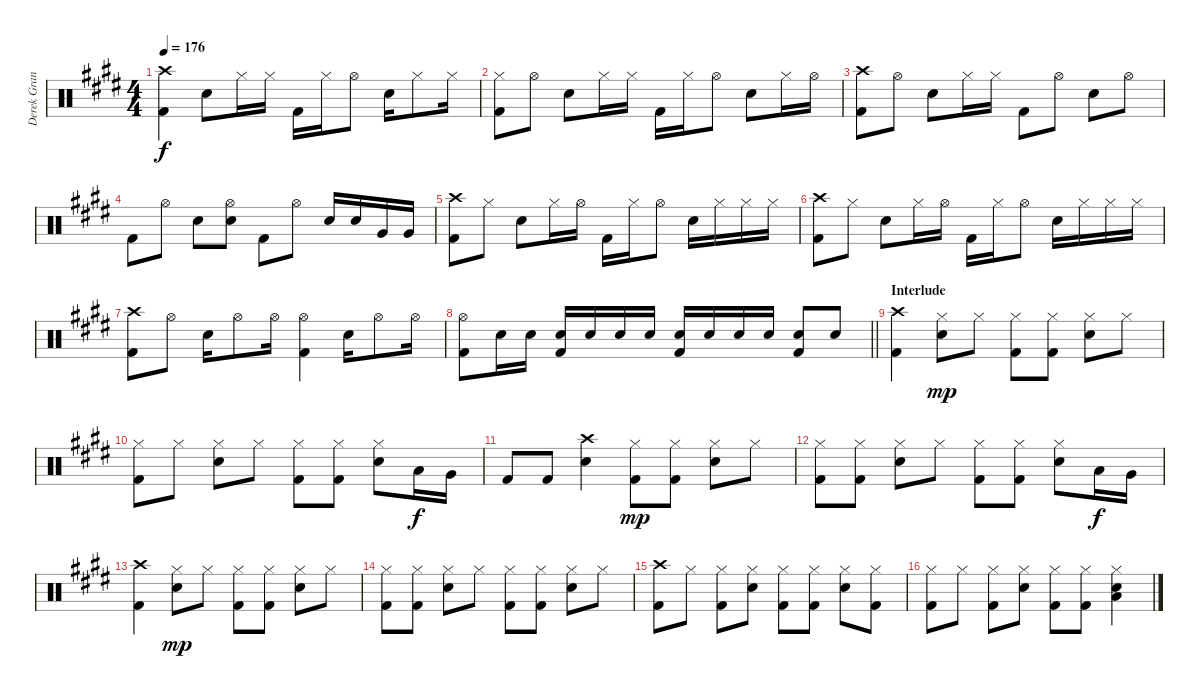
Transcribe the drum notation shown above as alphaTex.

\track ("Derek Grant - Drums" "Derek Gran") {instrument percussion}
\staff {score}
\articulation defaults
\ts (4 4)
\tempo 176
\clef neutral
\ks e
("Crash high (hit)" "Kick (hit) 2").4{dy f} "Snare (hit) 2".8 "Hi-Hat (closed)".16 "Hi-Hat (closed)".16 "Kick (hit) 2".16 "Hi-Hat (closed)".16 "Hi-Hat (open)".8 "Snare (hit) 2".16 "Hi-Hat (closed)".8 "Hi-Hat (closed)".16 |
("Hi-Hat (closed)" "Kick (hit) 2").8 "Hi-Hat (open)".8 "Snare (hit) 2".8 "Hi-Hat (closed)".16 "Hi-Hat (closed)".16 "Kick (hit) 2".16 "Hi-Hat (closed)".16 "Hi-Hat (open)".8 "Snare (hit) 2".8 "Hi-Hat (closed)".16 "Hi-Hat (open)".16 |
("Crash high (hit)" "Kick (hit) 2").8 "Hi-Hat (open)".8 "Snare (hit) 2".8 "Hi-Hat (closed)".16 "Hi-Hat (closed)".16 "Kick (hit) 2".8 "Hi-Hat (open)".8 "Snare (hit) 2".8 "Hi-Hat (open)".8 |
"Kick (hit) 2".8 "Hi-Hat (open)".8 "Snare (hit) 2".8 ("Snare (hit) 2" "Hi-Hat (open)").8 "Kick (hit) 2".8 "Hi-Hat (open)".8 "Snare (hit) 2".16 "Snare (hit) 2".16 "Very Low Tom (hit)".16 "Very Low Tom (hit)".16 |
("Crash high (hit)" "Kick (hit) 2").8 "Hi-Hat (closed)".8 "Snare (hit) 2".8 "Hi-Hat (closed)".16 "Hi-Hat (open)".16 "Kick (hit) 2".16 "Hi-Hat (closed)".16 "Hi-Hat (open)".8 "Snare (hit) 2".16 "Hi-Hat (closed)".16 "Hi-Hat (closed)".16 "Hi-Hat (closed)".16 |
("Crash high (hit)" "Kick (hit) 2").8 "Hi-Hat (closed)".8 "Snare (hit) 2".8 "Hi-Hat (closed)".16 "Hi-Hat (open)".16 "Kick (hit) 2".16 "Hi-Hat (closed)".16 "Hi-Hat (open)".8 "Snare (hit) 2".16 "Hi-Hat (closed)".16 "Hi-Hat (closed)".16 "Hi-Hat (closed)".16 |
("Crash high (hit)" "Kick (hit) 2").8 "Hi-Hat (open)".8 "Snare (hit) 2".16 "Hi-Hat (open)".8 "Hi-Hat (open)".16 ("Kick (hit) 2" "Hi-Hat (open)").4 "Snare (hit) 2".16 "Hi-Hat (open)".8 "Hi-Hat (open)".16 |
\barLineRight lightlight
("Kick (hit) 2" "Hi-Hat (open)").8 "Snare (hit) 2".16 "Snare (hit) 2".16 ("Snare (hit) 2" "Kick (hit) 2").16 "Snare (hit) 2".16 "Snare (hit) 2".16 "Snare (hit) 2".16 ("Snare (hit) 2" "Kick (hit) 2").16 "Snare (hit) 2".16 "Snare (hit) 2".16 "Snare (hit) 2".16 ("Snare (hit) 2" "Kick (hit) 2").8 "Snare (hit) 2".8 |
\section ("" "Interlude")
("Crash high (hit)" "Kick (hit) 2").4 ("Hi-Hat (closed)" "Snare (hit) 2").8{dy mp} "Hi-Hat (closed)".8 ("Hi-Hat (closed)" "Kick (hit) 2").8 ("Hi-Hat (closed)" "Kick (hit) 2").8 ("Hi-Hat (closed)" "Snare (hit) 2").8 "Hi-Hat (closed)".8 |
("Hi-Hat (closed)" "Kick (hit) 2").8 "Hi-Hat (closed)".8 ("Hi-Hat (closed)" "Snare (hit) 2").8 "Hi-Hat (closed)".8 ("Hi-Hat (closed)" "Kick (hit) 2").8 ("Hi-Hat (closed)" "Kick (hit) 2").8 ("Hi-Hat (closed)" "Snare (hit) 2").8 "Low Tom (hit)".16{dy f} "Very Low Tom (hit)".16 |
"Kick (hit) 2".8 "Kick (hit) 2".8 ("Snare (hit) 2" "Crash high (hit)").4 ("Kick (hit) 2" "Hi-Hat (closed)").8{dy mp} ("Kick (hit) 2" "Hi-Hat (closed)").8 ("Snare (hit) 2" "Hi-Hat (closed)").8 "Hi-Hat (closed)".8 |
("Kick (hit) 2" "Hi-Hat (closed)").8 ("Kick (hit) 2" "Hi-Hat (closed)").8 ("Snare (hit) 2" "Hi-Hat (closed)").8 "Hi-Hat (closed)".8 ("Hi-Hat (closed)" "Kick (hit) 2").8 ("Hi-Hat (closed)" "Kick (hit) 2").8 ("Hi-Hat (closed)" "Snare (hit) 2").8 "Low Tom (hit)".16{dy f} "Very Low Tom (hit)".16 |
("Kick (hit) 2" "Crash high (hit)").4 ("Snare (hit) 2" "Hi-Hat (closed)").8{dy mp} "Hi-Hat (closed)".8 ("Hi-Hat (closed)" "Kick (hit) 2").8 ("Hi-Hat (closed)" "Kick (hit) 2").8 ("Hi-Hat (closed)" "Snare (hit) 2").8 "Hi-Hat (closed)".8 |
("Hi-Hat (closed)" "Kick (hit) 2").8 ("Hi-Hat (closed)" "Kick (hit) 2").8 ("Hi-Hat (closed)" "Snare (hit) 2").8 "Hi-Hat (closed)".8 ("Hi-Hat (closed)" "Kick (hit) 2").8 ("Hi-Hat (closed)" "Kick (hit) 2").8 ("Hi-Hat (closed)" "Snare (hit) 2").8 "Hi-Hat (closed)".8 |
("Kick (hit) 2" "Crash high (hit)").8 "Hi-Hat (closed)".8 ("Hi-Hat (closed)" "Kick (hit) 2").8 ("Snare (hit) 2" "Hi-Hat (closed)").8 ("Hi-Hat (closed)" "Kick (hit) 2").8 ("Hi-Hat (closed)" "Kick (hit) 2").8 ("Hi-Hat (closed)" "Snare (hit) 2").8 ("Hi-Hat (closed)" "Kick (hit) 2").8 |
("Hi-Hat (closed)" "Kick (hit) 2").8 "Hi-Hat (closed)".8 ("Hi-Hat (closed)" "Kick (hit) 2").8 ("Snare (hit) 2" "Hi-Hat (closed)").8 ("Hi-Hat (closed)" "Kick (hit) 2").8 ("Hi-Hat (closed)" "Kick (hit) 2").8 ("Hi-Hat (closed)" "Snare (hit) 2" "Low Floor Tom (hit)").4
